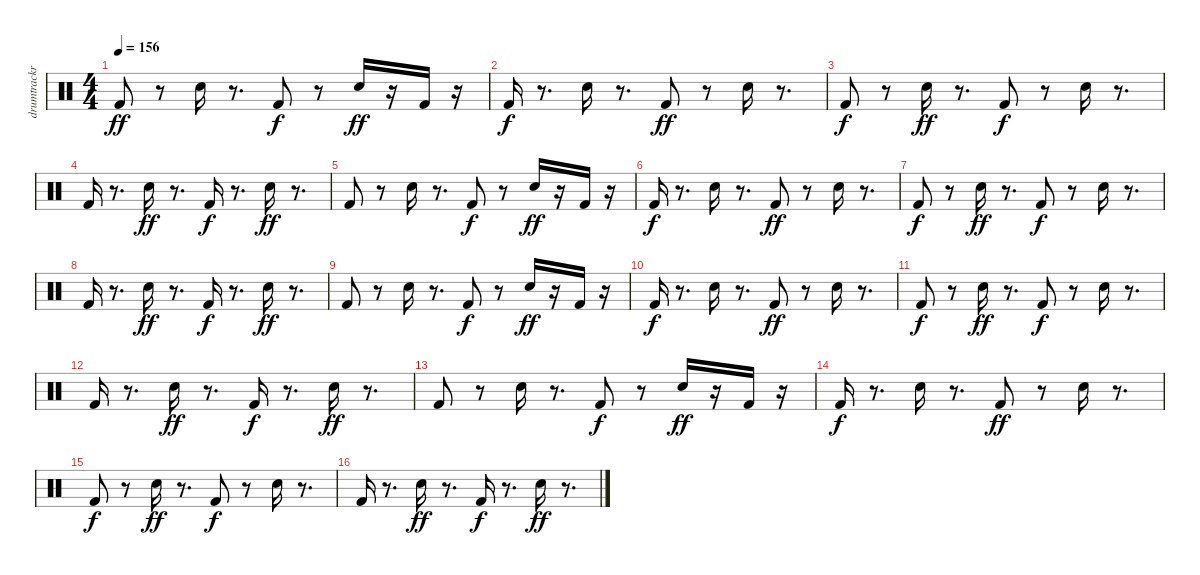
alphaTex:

\track ("drumtrackr " "drumtrackr") {instrument percussion}
\staff {score}
\articulation defaults
\ts (4 4)
\tempo 156
\clef neutral
\ks c "Kick (hit) 2".8{dy ff}
r.8 "Snare (hit) 2".16 r.8{d} "Kick (hit) 2".8{dy f} r.8 "Snare (hit) 2".16{dy ff} r.16 "Kick (hit) 2".16 r.16 |
"Kick (hit) 2".16{dy f} r.8{d} "Snare (hit) 2".16 r.8{d} "Kick (hit) 2".8{dy ff} r.8 "Snare (hit) 2".16 r.8{d} |
"Kick (hit) 2".8{dy f} r.8 "Snare (hit) 2".16{dy ff} r.8{d} "Kick (hit) 2".8{dy f} r.8 "Snare (hit) 2".16 r.8{d} |
"Kick (hit) 2".16 r.8{d} "Snare (hit) 2".16{dy ff} r.8{d} "Kick (hit) 2".16{dy f} r.8{d} "Snare (hit) 2".16{dy ff} r.8{d} |
"Kick (hit) 2".8 r.8 "Snare (hit) 2".16 r.8{d} "Kick (hit) 2".8{dy f} r.8 "Snare (hit) 2".16{dy ff} r.16 "Kick (hit) 2".16 r.16 |
"Kick (hit) 2".16{dy f} r.8{d} "Snare (hit) 2".16 r.8{d} "Kick (hit) 2".8{dy ff} r.8 "Snare (hit) 2".16 r.8{d} |
"Kick (hit) 2".8{dy f} r.8 "Snare (hit) 2".16{dy ff} r.8{d} "Kick (hit) 2".8{dy f} r.8 "Snare (hit) 2".16 r.8{d} |
"Kick (hit) 2".16 r.8{d} "Snare (hit) 2".16{dy ff} r.8{d} "Kick (hit) 2".16{dy f} r.8{d} "Snare (hit) 2".16{dy ff} r.8{d} |
"Kick (hit) 2".8 r.8 "Snare (hit) 2".16 r.8{d} "Kick (hit) 2".8{dy f} r.8 "Snare (hit) 2".16{dy ff} r.16 "Kick (hit) 2".16 r.16 |
"Kick (hit) 2".16{dy f} r.8{d} "Snare (hit) 2".16 r.8{d} "Kick (hit) 2".8{dy ff} r.8 "Snare (hit) 2".16 r.8{d} |
"Kick (hit) 2".8{dy f} r.8 "Snare (hit) 2".16{dy ff} r.8{d} "Kick (hit) 2".8{dy f} r.8 "Snare (hit) 2".16 r.8{d} |
"Kick (hit) 2".16 r.8{d} "Snare (hit) 2".16{dy ff} r.8{d} "Kick (hit) 2".16{dy f} r.8{d} "Snare (hit) 2".16{dy ff} r.8{d} |
"Kick (hit) 2".8 r.8 "Snare (hit) 2".16 r.8{d} "Kick (hit) 2".8{dy f} r.8 "Snare (hit) 2".16{dy ff} r.16 "Kick (hit) 2".16 r.16 |
"Kick (hit) 2".16{dy f} r.8{d} "Snare (hit) 2".16 r.8{d} "Kick (hit) 2".8{dy ff} r.8 "Snare (hit) 2".16 r.8{d} |
"Kick (hit) 2".8{dy f} r.8 "Snare (hit) 2".16{dy ff} r.8{d} "Kick (hit) 2".8{dy f} r.8 "Snare (hit) 2".16 r.8{d} |
"Kick (hit) 2".16 r.8{d} "Snare (hit) 2".16{dy ff} r.8{d} "Kick (hit) 2".16{dy f} r.8{d} "Snare (hit) 2".16{dy ff} r.8{d}
